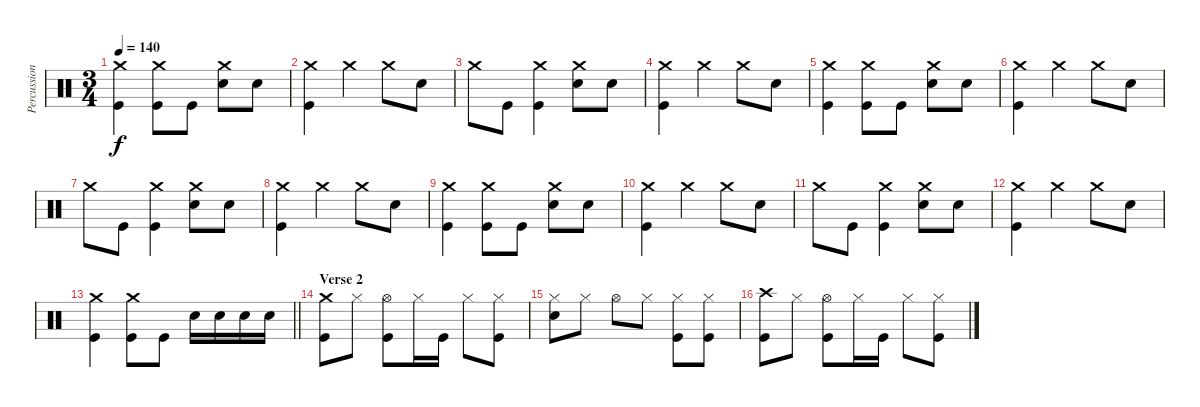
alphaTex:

\track ("Percussion" "Percussion") {instrument percussion}
\staff {score}
\articulation defaults
\ts (3 4)
\tempo 140
\clef neutral
\ks c
("Crash medium (hit)" "Kick (hit)").4{dy f} ("Crash medium (hit)" "Kick (hit)").8 "Kick (hit)".8 ("Crash medium (hit)" "Electric Snare (hit)").8 "Electric Snare (hit)".8 |
("Crash medium (hit)" "Kick (hit)").4 "Crash medium (hit)".4 "Crash medium (hit)".8 "Electric Snare (hit)".8 |
"Crash medium (hit)".8 "Kick (hit)".8 ("Crash medium (hit)" "Kick (hit)").4 ("Crash medium (hit)" "Electric Snare (hit)").8 "Electric Snare (hit)".8 |
("Crash medium (hit)" "Kick (hit)").4 "Crash medium (hit)".4 "Crash medium (hit)".8 "Electric Snare (hit)".8 |
("Crash medium (hit)" "Kick (hit)").4 ("Crash medium (hit)" "Kick (hit)").8 "Kick (hit)".8 ("Crash medium (hit)" "Electric Snare (hit)").8 "Electric Snare (hit)".8 |
("Crash medium (hit)" "Kick (hit)").4 "Crash medium (hit)".4 "Crash medium (hit)".8 "Electric Snare (hit)".8 |
"Crash medium (hit)".8 "Kick (hit)".8 ("Crash medium (hit)" "Kick (hit)").4 ("Crash medium (hit)" "Electric Snare (hit)").8 "Electric Snare (hit)".8 |
("Crash medium (hit)" "Kick (hit)").4 "Crash medium (hit)".4 "Crash medium (hit)".8 "Electric Snare (hit)".8 |
("Crash medium (hit)" "Kick (hit)").4 ("Crash medium (hit)" "Kick (hit)").8 "Kick (hit)".8 ("Crash medium (hit)" "Electric Snare (hit)").8 "Electric Snare (hit)".8 |
("Crash medium (hit)" "Kick (hit)").4 "Crash medium (hit)".4 "Crash medium (hit)".8 "Electric Snare (hit)".8 |
"Crash medium (hit)".8 "Kick (hit)".8 ("Crash medium (hit)" "Kick (hit)").4 ("Crash medium (hit)" "Electric Snare (hit)").8 "Electric Snare (hit)".8 |
("Crash medium (hit)" "Kick (hit)").4 "Crash medium (hit)".4 "Crash medium (hit)".8 "Electric Snare (hit)".8 |
\barLineRight lightlight
("Crash medium (hit)" "Kick (hit)").4 ("Crash medium (hit)" "Kick (hit)").8 "Kick (hit)".8 "Electric Snare (hit)".16 "Electric Snare (hit)".16 "Electric Snare (hit)".16 "Electric Snare (hit)".16 |
\section ("" "Verse 2")
("Crash medium (hit)" "Kick (hit)").8 "Hi-Hat (closed)".8 ("Hi-Hat (open)" "Kick (hit)").8 "Hi-Hat (closed)".16 "Kick (hit)".16 "Hi-Hat (closed)".8 ("Hi-Hat (closed)" "Kick (hit)").8 |
("Hi-Hat (closed)" "Electric Snare (hit)").8 "Hi-Hat (closed)".8 "Hi-Hat (open)".8 "Hi-Hat (closed)".8 ("Hi-Hat (closed)" "Kick (hit)").8 ("Hi-Hat (closed)" "Kick (hit)").8 |
("Crash high (hit)" "Kick (hit)").8 "Hi-Hat (closed)".8 ("Hi-Hat (open)" "Kick (hit)").8 "Hi-Hat (closed)".16 "Kick (hit)".16 "Hi-Hat (closed)".8 ("Hi-Hat (closed)" "Kick (hit)").8
